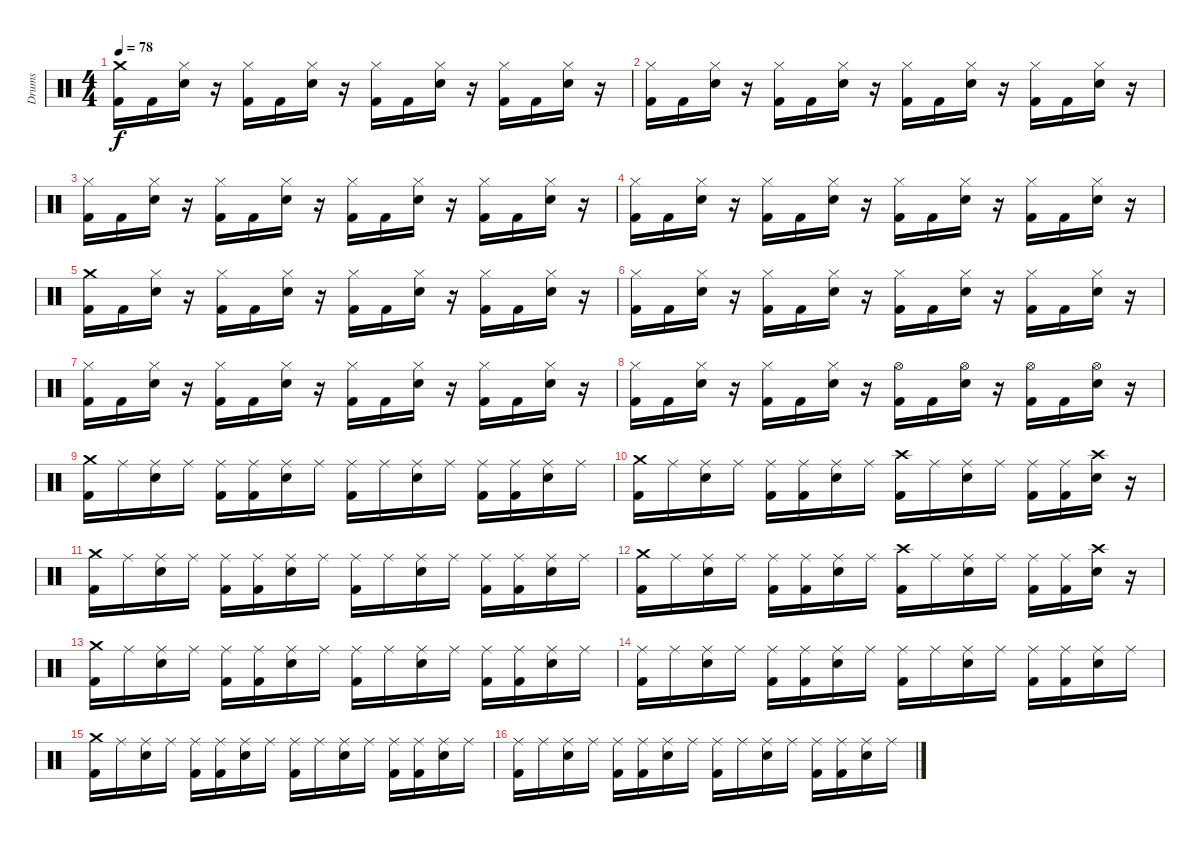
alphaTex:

\track ("Drums" "Drums") {instrument percussion}
\staff {score}
\articulation defaults
\ts (4 4)
\tempo 78
\clef neutral
\ks c
("Crash medium (hit)" "Kick (hit) 2").16{dy f} "Kick (hit) 2".16 ("Hi-Hat (closed)" "Snare (hit) 2").16 r.16 ("Hi-Hat (closed)" "Kick (hit) 2").16 "Kick (hit) 2".16 ("Hi-Hat (closed)" "Snare (hit) 2").16 r.16 ("Hi-Hat (closed)" "Kick (hit) 2").16 "Kick (hit) 2".16 ("Hi-Hat (closed)" "Snare (hit) 2").16 r.16 ("Hi-Hat (closed)" "Kick (hit) 2").16 "Kick (hit) 2".16 ("Hi-Hat (closed)" "Snare (hit) 2").16 r.16 |
("Hi-Hat (closed)" "Kick (hit) 2").16 "Kick (hit) 2".16 ("Hi-Hat (closed)" "Snare (hit) 2").16 r.16 ("Hi-Hat (closed)" "Kick (hit) 2").16 "Kick (hit) 2".16 ("Hi-Hat (closed)" "Snare (hit) 2").16 r.16 ("Hi-Hat (closed)" "Kick (hit) 2").16 "Kick (hit) 2".16 ("Hi-Hat (closed)" "Snare (hit) 2").16 r.16 ("Hi-Hat (closed)" "Kick (hit) 2").16 "Kick (hit) 2".16 ("Hi-Hat (closed)" "Snare (hit) 2").16 r.16 |
("Hi-Hat (closed)" "Kick (hit) 2").16 "Kick (hit) 2".16 ("Hi-Hat (closed)" "Snare (hit) 2").16 r.16 ("Hi-Hat (closed)" "Kick (hit) 2").16 "Kick (hit) 2".16 ("Hi-Hat (closed)" "Snare (hit) 2").16 r.16 ("Hi-Hat (closed)" "Kick (hit) 2").16 "Kick (hit) 2".16 ("Hi-Hat (closed)" "Snare (hit) 2").16 r.16 ("Hi-Hat (closed)" "Kick (hit) 2").16 "Kick (hit) 2".16 ("Hi-Hat (closed)" "Snare (hit) 2").16 r.16 |
("Hi-Hat (closed)" "Kick (hit) 2").16 "Kick (hit) 2".16 ("Hi-Hat (closed)" "Snare (hit) 2").16 r.16 ("Hi-Hat (closed)" "Kick (hit) 2").16 "Kick (hit) 2".16 ("Hi-Hat (closed)" "Snare (hit) 2").16 r.16 ("Hi-Hat (closed)" "Kick (hit) 2").16 "Kick (hit) 2".16 ("Hi-Hat (closed)" "Snare (hit) 2").16 r.16 ("Hi-Hat (closed)" "Kick (hit) 2").16 "Kick (hit) 2".16 ("Hi-Hat (closed)" "Snare (hit) 2").16 r.16 |
("Crash medium (hit)" "Kick (hit) 2").16 "Kick (hit) 2".16 ("Hi-Hat (closed)" "Snare (hit) 2").16 r.16 ("Hi-Hat (closed)" "Kick (hit) 2").16 "Kick (hit) 2".16 ("Hi-Hat (closed)" "Snare (hit) 2").16 r.16 ("Hi-Hat (closed)" "Kick (hit) 2").16 "Kick (hit) 2".16 ("Hi-Hat (closed)" "Snare (hit) 2").16 r.16 ("Hi-Hat (closed)" "Kick (hit) 2").16 "Kick (hit) 2".16 ("Hi-Hat (closed)" "Snare (hit) 2").16 r.16 |
("Hi-Hat (closed)" "Kick (hit) 2").16 "Kick (hit) 2".16 ("Hi-Hat (closed)" "Snare (hit) 2").16 r.16 ("Hi-Hat (closed)" "Kick (hit) 2").16 "Kick (hit) 2".16 ("Hi-Hat (closed)" "Snare (hit) 2").16 r.16 ("Hi-Hat (closed)" "Kick (hit) 2").16 "Kick (hit) 2".16 ("Hi-Hat (closed)" "Snare (hit) 2").16 r.16 ("Hi-Hat (closed)" "Kick (hit) 2").16 "Kick (hit) 2".16 ("Hi-Hat (closed)" "Snare (hit) 2").16 r.16 |
("Hi-Hat (closed)" "Kick (hit) 2").16 "Kick (hit) 2".16 ("Hi-Hat (closed)" "Snare (hit) 2").16 r.16 ("Hi-Hat (closed)" "Kick (hit) 2").16 "Kick (hit) 2".16 ("Hi-Hat (closed)" "Snare (hit) 2").16 r.16 ("Hi-Hat (closed)" "Kick (hit) 2").16 "Kick (hit) 2".16 ("Hi-Hat (closed)" "Snare (hit) 2").16 r.16 ("Hi-Hat (closed)" "Kick (hit) 2").16 "Kick (hit) 2".16 ("Hi-Hat (closed)" "Snare (hit) 2").16 r.16 |
("Hi-Hat (closed)" "Kick (hit) 2").16 "Kick (hit) 2".16 ("Hi-Hat (closed)" "Snare (hit) 2").16 r.16 ("Hi-Hat (closed)" "Kick (hit) 2").16 "Kick (hit) 2".16 ("Hi-Hat (closed)" "Snare (hit) 2").16 r.16 ("Hi-Hat (open)" "Kick (hit) 2").16 "Kick (hit) 2".16 ("Hi-Hat (open)" "Snare (hit) 2").16 r.16 ("Hi-Hat (open)" "Kick (hit) 2").16 "Kick (hit) 2".16 ("Hi-Hat (open)" "Snare (hit) 2").16 r.16 |
("Crash medium (hit)" "Kick (hit) 2").16 "Ride (middle)".16 ("Ride (middle)" "Snare (hit) 2").16 "Ride (middle)".16 ("Ride (middle)" "Kick (hit) 2").16 ("Ride (middle)" "Kick (hit) 2").16 ("Ride (middle)" "Snare (hit) 2").16 "Ride (middle)".16 ("Ride (middle)" "Kick (hit) 2").16 "Ride (middle)".16 ("Ride (middle)" "Snare (hit) 2").16 "Ride (middle)".16 ("Ride (middle)" "Kick (hit) 2").16 ("Ride (middle)" "Kick (hit) 2").16 ("Ride (middle)" "Snare (hit) 2").16 "Ride (middle)".16 |
("Crash medium (hit)" "Kick (hit) 2").16 "Ride (middle)".16 ("Ride (middle)" "Snare (hit) 2").16 "Ride (middle)".16 ("Ride (middle)" "Kick (hit) 2").16 ("Ride (middle)" "Kick (hit) 2").16 ("Ride (middle)" "Snare (hit) 2").16 "Ride (middle)".16 ("Crash high (hit)" "Kick (hit) 2").16 "Ride (middle)".16 ("Ride (middle)" "Snare (hit) 2").16 "Ride (middle)".16 ("Ride (middle)" "Kick (hit) 2").16 ("Ride (middle)" "Kick (hit) 2").16 ("Crash high (hit)" "Snare (hit) 2").16 r.16 |
("Crash medium (hit)" "Kick (hit) 2").16 "Ride (middle)".16 ("Ride (middle)" "Snare (hit) 2").16 "Ride (middle)".16 ("Ride (middle)" "Kick (hit) 2").16 ("Ride (middle)" "Kick (hit) 2").16 ("Ride (middle)" "Snare (hit) 2").16 "Ride (middle)".16 ("Ride (middle)" "Kick (hit) 2").16 "Ride (middle)".16 ("Ride (middle)" "Snare (hit) 2").16 "Ride (middle)".16 ("Ride (middle)" "Kick (hit) 2").16 ("Ride (middle)" "Kick (hit) 2").16 ("Ride (middle)" "Snare (hit) 2").16 "Ride (middle)".16 |
("Crash medium (hit)" "Kick (hit) 2").16 "Ride (middle)".16 ("Ride (middle)" "Snare (hit) 2").16 "Ride (middle)".16 ("Ride (middle)" "Kick (hit) 2").16 ("Ride (middle)" "Kick (hit) 2").16 ("Ride (middle)" "Snare (hit) 2").16 "Ride (middle)".16 ("Crash high (hit)" "Kick (hit) 2").16 "Ride (middle)".16 ("Ride (middle)" "Snare (hit) 2").16 "Ride (middle)".16 ("Ride (middle)" "Kick (hit) 2").16 ("Ride (middle)" "Kick (hit) 2").16 ("Crash high (hit)" "Snare (hit) 2").16 r.16 |
("Crash medium (hit)" "Kick (hit) 2").16 "Ride (middle)".16 ("Ride (middle)" "Snare (hit) 2").16 "Ride (middle)".16 ("Ride (middle)" "Kick (hit) 2").16 ("Ride (middle)" "Kick (hit) 2").16 ("Ride (middle)" "Snare (hit) 2").16 "Ride (middle)".16 ("Ride (middle)" "Kick (hit) 2").16 "Ride (middle)".16 ("Ride (middle)" "Snare (hit) 2").16 "Ride (middle)".16 ("Ride (middle)" "Kick (hit) 2").16 ("Ride (middle)" "Kick (hit) 2").16 ("Ride (middle)" "Snare (hit) 2").16 "Ride (middle)".16 |
("Ride (middle)" "Kick (hit) 2").16 "Ride (middle)".16 ("Ride (middle)" "Snare (hit) 2").16 "Ride (middle)".16 ("Ride (middle)" "Kick (hit) 2").16 ("Ride (middle)" "Kick (hit) 2").16 ("Ride (middle)" "Snare (hit) 2").16 "Ride (middle)".16 ("Ride (middle)" "Kick (hit) 2").16 "Ride (middle)".16 ("Ride (middle)" "Snare (hit) 2").16 "Ride (middle)".16 ("Ride (middle)" "Kick (hit) 2").16 ("Ride (middle)" "Kick (hit) 2").16 ("Ride (middle)" "Snare (hit) 2").16 "Ride (middle)".16 |
("Crash medium (hit)" "Kick (hit) 2").16 "Ride (middle)".16 ("Ride (middle)" "Snare (hit) 2").16 "Ride (middle)".16 ("Ride (middle)" "Kick (hit) 2").16 ("Ride (middle)" "Kick (hit) 2").16 ("Ride (middle)" "Snare (hit) 2").16 "Ride (middle)".16 ("Ride (middle)" "Kick (hit) 2").16 "Ride (middle)".16 ("Ride (middle)" "Snare (hit) 2").16 "Ride (middle)".16 ("Ride (middle)" "Kick (hit) 2").16 ("Ride (middle)" "Kick (hit) 2").16 ("Ride (middle)" "Snare (hit) 2").16 "Ride (middle)".16 |
("Ride (middle)" "Kick (hit) 2").16 "Ride (middle)".16 ("Ride (middle)" "Snare (hit) 2").16 "Ride (middle)".16 ("Ride (middle)" "Kick (hit) 2").16 ("Ride (middle)" "Kick (hit) 2").16 ("Ride (middle)" "Snare (hit) 2").16 "Ride (middle)".16 ("Ride (middle)" "Kick (hit) 2").16 "Ride (middle)".16 ("Ride (middle)" "Snare (hit) 2").16 "Ride (middle)".16 ("Ride (middle)" "Kick (hit) 2").16 ("Ride (middle)" "Kick (hit) 2").16 ("Ride (middle)" "Snare (hit) 2").16 "Ride (middle)".16
